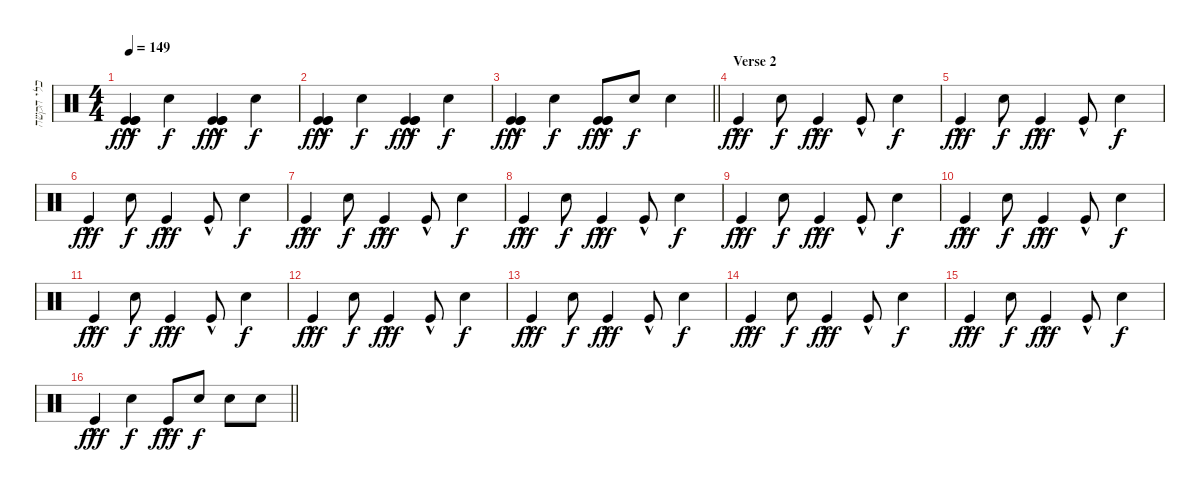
\track ("כלי הקשה" "כלי הקשה") {instrument percussion}
\staff {score}
\articulation defaults
\ts (4 4)
\tempo 149
\clef neutral
\ks c
("Kick (hit)"{hac} "Kick (hit)"{hac} "Kick (hit)"{hac}).4{dy fff} "Electric Snare (hit)".4{dy f} ("Kick (hit)"{hac} "Kick (hit)"{hac} "Kick (hit)"{hac}).4{dy fff} "Electric Snare (hit)".4{dy f} |
("Kick (hit)"{hac} "Kick (hit)"{hac} "Kick (hit)"{hac}).4{dy fff} "Electric Snare (hit)".4{dy f} ("Kick (hit)"{hac} "Kick (hit)"{hac} "Kick (hit)"{hac}).4{dy fff} "Electric Snare (hit)".4{dy f} |
\barLineRight lightlight
("Kick (hit)"{hac} "Kick (hit)"{hac} "Kick (hit)"{hac}).4{dy fff} "Electric Snare (hit)".4{dy f} ("Kick (hit)"{hac} "Kick (hit)"{hac} "Kick (hit)"{hac}).8{dy fff} "Electric Snare (hit)".8{dy f} "Electric Snare (hit)".4 |
\section ("" "Verse 2")
"Kick (hit)"{hac}.4{dy fff} "Electric Snare (hit)".8{dy f} "Kick (hit)"{hac}.4{dy fff} "Kick (hit)"{hac}.8 "Electric Snare (hit)".4{dy f} |
"Kick (hit)"{hac}.4{dy fff} "Electric Snare (hit)".8{dy f} "Kick (hit)"{hac}.4{dy fff} "Kick (hit)"{hac}.8 "Electric Snare (hit)".4{dy f} |
"Kick (hit)"{hac}.4{dy fff} "Electric Snare (hit)".8{dy f} "Kick (hit)"{hac}.4{dy fff} "Kick (hit)"{hac}.8 "Electric Snare (hit)".4{dy f} |
"Kick (hit)"{hac}.4{dy fff} "Electric Snare (hit)".8{dy f} "Kick (hit)"{hac}.4{dy fff} "Kick (hit)"{hac}.8 "Electric Snare (hit)".4{dy f} |
"Kick (hit)"{hac}.4{dy fff} "Electric Snare (hit)".8{dy f} "Kick (hit)"{hac}.4{dy fff} "Kick (hit)"{hac}.8 "Electric Snare (hit)".4{dy f} |
"Kick (hit)"{hac}.4{dy fff} "Electric Snare (hit)".8{dy f} "Kick (hit)"{hac}.4{dy fff} "Kick (hit)"{hac}.8 "Electric Snare (hit)".4{dy f} |
"Kick (hit)"{hac}.4{dy fff} "Electric Snare (hit)".8{dy f} "Kick (hit)"{hac}.4{dy fff} "Kick (hit)"{hac}.8 "Electric Snare (hit)".4{dy f} |
"Kick (hit)"{hac}.4{dy fff} "Electric Snare (hit)".8{dy f} "Kick (hit)"{hac}.4{dy fff} "Kick (hit)"{hac}.8 "Electric Snare (hit)".4{dy f} |
"Kick (hit)"{hac}.4{dy fff} "Electric Snare (hit)".8{dy f} "Kick (hit)"{hac}.4{dy fff} "Kick (hit)"{hac}.8 "Electric Snare (hit)".4{dy f} |
"Kick (hit)"{hac}.4{dy fff} "Electric Snare (hit)".8{dy f} "Kick (hit)"{hac}.4{dy fff} "Kick (hit)"{hac}.8 "Electric Snare (hit)".4{dy f} |
"Kick (hit)"{hac}.4{dy fff} "Electric Snare (hit)".8{dy f} "Kick (hit)"{hac}.4{dy fff} "Kick (hit)"{hac}.8 "Electric Snare (hit)".4{dy f} |
"Kick (hit)"{hac}.4{dy fff} "Electric Snare (hit)".8{dy f} "Kick (hit)"{hac}.4{dy fff} "Kick (hit)"{hac}.8 "Electric Snare (hit)".4{dy f} |
\barLineRight lightlight "Kick (hit)"{hac}.4{dy fff} "Electric Snare (hit)".4{dy f} "Kick (hit)"{hac}.8{dy fff} "Electric Snare (hit)".8{dy f} "Electric Snare (hit)".8 "Electric Snare (hit)".8
